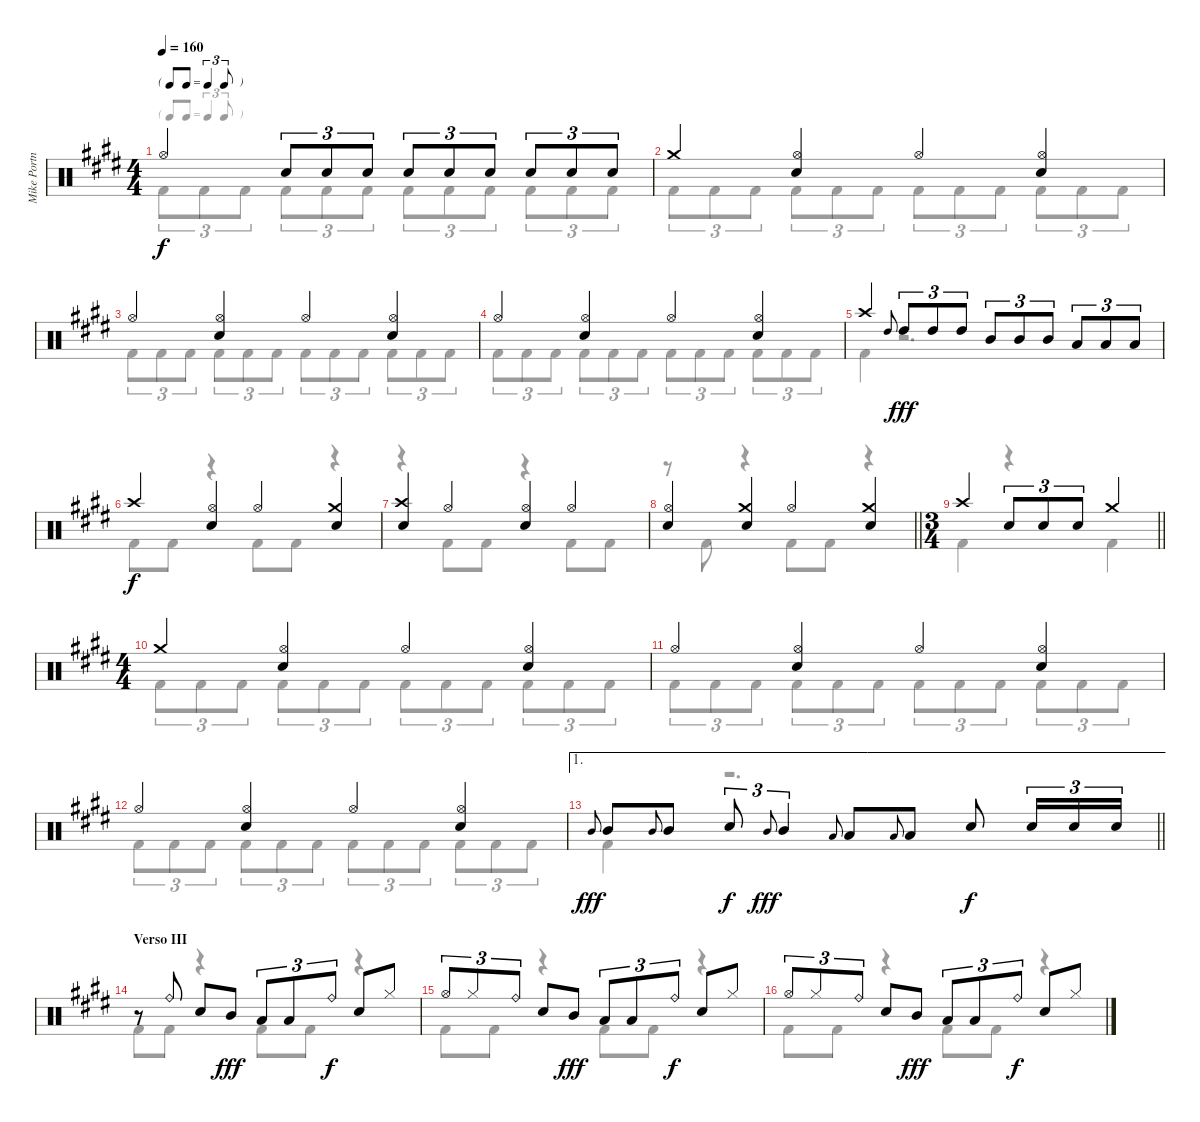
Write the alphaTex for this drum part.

\track ("Mike Portnoy" "Mike Portn") {instrument percussion}
\staff {score}
\articulation defaults
\voice
\ts (4 4)
\tf triplet8th
\tempo 160
\clef neutral
\ks e "Hi-Hat (open)".4{dy f} "Snare (hit) 2".8{tu (3 2)} "Snare (hit) 2".8{tu (3 2)} "Snare (hit) 2".8{tu (3 2)} "Snare (hit) 2".8{tu (3 2)} "Snare (hit) 2".8{tu (3 2)} "Snare (hit) 2".8{tu (3 2)} "Snare (hit) 2".8{tu (3 2)} "Snare (hit) 2".8{tu (3 2)} "Snare (hit) 2".8{tu (3 2)}
|
"Crash medium (hit)".4 ("Hi-Hat (open)" "Snare (hit) 2").4 "Hi-Hat (open)".4 ("Hi-Hat (open)" "Snare (hit) 2").4 |
"Hi-Hat (open)".4 ("Hi-Hat (open)" "Snare (hit) 2").4 "Hi-Hat (open)".4 ("Hi-Hat (open)" "Snare (hit) 2").4 |
"Hi-Hat (open)".4 ("Hi-Hat (open)" "Snare (hit) 2").4 "Hi-Hat (open)".4 ("Hi-Hat (open)" "Snare (hit) 2").4 |
"Crash high (hit)".4 "High Tom (hit)".8{gr onbeat} "High Tom (hit)".8{tu (3 2) dy fff volume 16} "High Tom (hit)".8{tu (3 2)} "High Tom (hit)".8{tu (3 2)} "Mid Tom (hit)".8{tu (3 2)} "Mid Tom (hit)".8{tu (3 2)} "Mid Tom (hit)".8{tu (3 2)} "Low Tom (hit)".8{tu (3 2)} "Low Tom (hit)".8{tu (3 2)} "Low Tom (hit)".8{tu (3 2)} |
"Crash high (hit)".4{dy f volume 13} ("Hi-Hat (open)" "Snare (hit) 2").4 "Hi-Hat (open)".4 ("Crash medium (hit)" "Snare (hit) 2").4 |
("Crash high (hit)" "Snare (hit) 2").4 "Hi-Hat (open)".4 ("Hi-Hat (open)" "Snare (hit) 2").4 "Hi-Hat (open)".4 |
\barLineRight lightlight
("Hi-Hat (open)" "Snare (hit) 2").4 ("Crash medium (hit)" "Snare (hit) 2").4 "Hi-Hat (open)".4 ("Crash medium (hit)" "Snare (hit) 2").4 |
\ts (3 4)
\barLineRight lightlight "Crash high (hit)".4 "Snare (hit) 2".8{tu (3 2)} "Snare (hit) 2".8{tu (3 2)} "Snare (hit) 2".8{tu (3 2)} "Crash medium (hit)".4
|
\ts (4 4)
"Crash medium (hit)".4 ("Hi-Hat (open)" "Snare (hit) 2").4 "Hi-Hat (open)".4 ("Hi-Hat (open)" "Snare (hit) 2").4 |
"Hi-Hat (open)".4 ("Hi-Hat (open)" "Snare (hit) 2").4 "Hi-Hat (open)".4 ("Hi-Hat (open)" "Snare (hit) 2").4 |
"Hi-Hat (open)".4 ("Hi-Hat (open)" "Snare (hit) 2").4 "Hi-Hat (open)".4 ("Hi-Hat (open)" "Snare (hit) 2").4 |
\ae 1
\barLineRight lightlight "Mid Tom (hit)".8{gr onbeat dy fff} "Mid Tom (hit)".8 "Mid Tom (hit)".8{gr onbeat} "Mid Tom (hit)".8 "Snare (hit) 2".8{tu (3 2) dy f} "Mid Tom (hit)".8{gr onbeat dy fff} "Mid Tom (hit)".4{tu (3 2)} "Low Tom (hit)".8{gr onbeat} "Low Tom (hit)".8 "Low Tom (hit)".8{gr onbeat} "Low Tom (hit)".8 "Snare (hit) 2".8{dy f} "Snare (hit) 2".16{tu (3 2)} "Snare (hit) 2".16{tu (3 2)} "Snare (hit) 2".16{tu (3 2)}
|
\section ("" "Verso III")
r.8 "Ride (bell)".8 "Snare (hit) 2".8 "Mid Tom (hit)".8{dy fff} "Low Tom (hit)".8{tu (3 2)} "Low Tom (hit)".8{tu (3 2)} "Ride (bell)".8{tu (3 2) dy f} "Snare (hit) 2".8 "Hi-Hat (closed)".8 |
"Hi-Hat (open)".8{tu (3 2)} "Hi-Hat (closed)".8{tu (3 2)} "Ride (bell)".8{tu (3 2)} "Snare (hit) 2".8 "Mid Tom (hit)".8{dy fff} "Low Tom (hit)".8{tu (3 2)} "Low Tom (hit)".8{tu (3 2)} "Ride (bell)".8{tu (3 2) dy f} "Snare (hit) 2".8 "Hi-Hat (closed)".8 |
"Hi-Hat (open)".8{tu (3 2)} "Hi-Hat (closed)".8{tu (3 2)} "Ride (bell)".8{tu (3 2)} "Snare (hit) 2".8 "Mid Tom (hit)".8{dy fff} "Low Tom (hit)".8{tu (3 2)} "Low Tom (hit)".8{tu (3 2)} "Ride (bell)".8{tu (3 2) dy f} "Snare (hit) 2".8 "Hi-Hat (closed)".8
\voice
\clef neutral
\ottava regular
\simile none
\ks e "Kick (hit) 2".8{tu (3 2) dy f} "Kick (hit) 2".8{tu (3 2)} "Kick (hit) 2".8{tu (3 2)} "Kick (hit) 2".8{tu (3 2)} "Kick (hit) 2".8{tu (3 2)} "Kick (hit) 2".8{tu (3 2)} "Kick (hit) 2".8{tu (3 2)} "Kick (hit) 2".8{tu (3 2)} "Kick (hit) 2".8{tu (3 2)} "Kick (hit) 2".8{tu (3 2)} "Kick (hit) 2".8{tu (3 2)} "Kick (hit) 2".8{tu (3 2)}
|
"Kick (hit) 2".8{tu (3 2)} "Kick (hit) 2".8{tu (3 2)} "Kick (hit) 2".8{tu (3 2)} "Kick (hit) 2".8{tu (3 2)} "Kick (hit) 2".8{tu (3 2)} "Kick (hit) 2".8{tu (3 2)} "Kick (hit) 2".8{tu (3 2)} "Kick (hit) 2".8{tu (3 2)} "Kick (hit) 2".8{tu (3 2)} "Kick (hit) 2".8{tu (3 2)} "Kick (hit) 2".8{tu (3 2)} "Kick (hit) 2".8{tu (3 2)} |
"Kick (hit) 2".8{tu (3 2)} "Kick (hit) 2".8{tu (3 2)} "Kick (hit) 2".8{tu (3 2)} "Kick (hit) 2".8{tu (3 2)} "Kick (hit) 2".8{tu (3 2)} "Kick (hit) 2".8{tu (3 2)} "Kick (hit) 2".8{tu (3 2)} "Kick (hit) 2".8{tu (3 2)} "Kick (hit) 2".8{tu (3 2)} "Kick (hit) 2".8{tu (3 2)} "Kick (hit) 2".8{tu (3 2)} "Kick (hit) 2".8{tu (3 2)} |
"Kick (hit) 2".8{tu (3 2)} "Kick (hit) 2".8{tu (3 2)} "Kick (hit) 2".8{tu (3 2)} "Kick (hit) 2".8{tu (3 2)} "Kick (hit) 2".8{tu (3 2)} "Kick (hit) 2".8{tu (3 2)} "Kick (hit) 2".8{tu (3 2)} "Kick (hit) 2".8{tu (3 2)} "Kick (hit) 2".8{tu (3 2)} "Kick (hit) 2".8{tu (3 2)} "Kick (hit) 2".8{tu (3 2)} "Kick (hit) 2".8{tu (3 2)} |
"Kick (hit) 2".4 r.2{d} |
"Kick (hit) 2".8 "Kick (hit) 2".8 r.4 "Kick (hit) 2".8 "Kick (hit) 2".8 r.4 |
r.4 "Kick (hit) 2".8 "Kick (hit) 2".8 r.4 "Kick (hit) 2".8 "Kick (hit) 2".8 |
\barLineRight lightlight
r.8 "Kick (hit) 2".8 r.4 "Kick (hit) 2".8 "Kick (hit) 2".8 r.4 |
\barLineRight lightlight "Kick (hit) 2".4
r.4 "Kick (hit) 2".4 |
"Kick (hit) 2".8{tu (3 2)} "Kick (hit) 2".8{tu (3 2)} "Kick (hit) 2".8{tu (3 2)} "Kick (hit) 2".8{tu (3 2)} "Kick (hit) 2".8{tu (3 2)} "Kick (hit) 2".8{tu (3 2)} "Kick (hit) 2".8{tu (3 2)} "Kick (hit) 2".8{tu (3 2)} "Kick (hit) 2".8{tu (3 2)} "Kick (hit) 2".8{tu (3 2)} "Kick (hit) 2".8{tu (3 2)} "Kick (hit) 2".8{tu (3 2)} |
"Kick (hit) 2".8{tu (3 2)} "Kick (hit) 2".8{tu (3 2)} "Kick (hit) 2".8{tu (3 2)} "Kick (hit) 2".8{tu (3 2)} "Kick (hit) 2".8{tu (3 2)} "Kick (hit) 2".8{tu (3 2)} "Kick (hit) 2".8{tu (3 2)} "Kick (hit) 2".8{tu (3 2)} "Kick (hit) 2".8{tu (3 2)} "Kick (hit) 2".8{tu (3 2)} "Kick (hit) 2".8{tu (3 2)} "Kick (hit) 2".8{tu (3 2)} |
"Kick (hit) 2".8{tu (3 2)} "Kick (hit) 2".8{tu (3 2)} "Kick (hit) 2".8{tu (3 2)} "Kick (hit) 2".8{tu (3 2)} "Kick (hit) 2".8{tu (3 2)} "Kick (hit) 2".8{tu (3 2)} "Kick (hit) 2".8{tu (3 2)} "Kick (hit) 2".8{tu (3 2)} "Kick (hit) 2".8{tu (3 2)} "Kick (hit) 2".8{tu (3 2)} "Kick (hit) 2".8{tu (3 2)} "Kick (hit) 2".8{tu (3 2)} |
\barLineRight lightlight "Kick (hit) 2".4
r.2{d} |
"Kick (hit) 2".8 "Kick (hit) 2".8 r.4 "Kick (hit) 2".8 "Kick (hit) 2".8 r.4 |
"Kick (hit) 2".8 "Kick (hit) 2".8 r.4 "Kick (hit) 2".8 "Kick (hit) 2".8 r.4 |
"Kick (hit) 2".8 "Kick (hit) 2".8 r.4 "Kick (hit) 2".8 "Kick (hit) 2".8 r.4
